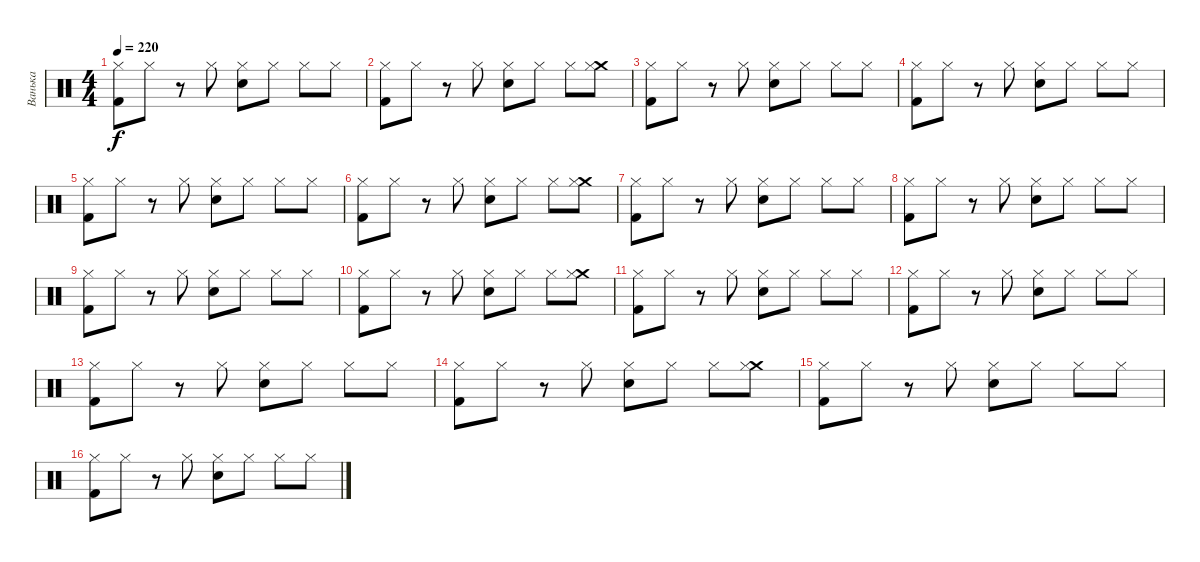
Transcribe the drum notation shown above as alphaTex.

\track ("Ванька" "Ванька") {instrument percussion}
\staff {score}
\articulation defaults
\ts (4 4)
\tempo 220
\clef neutral
\ks c
("Hi-Hat (closed)" "Kick (hit) 2").8{dy f} "Hi-Hat (closed)".8 r.8 "Hi-Hat (closed)".8 ("Hi-Hat (closed)" "Snare (hit) 2").8 "Hi-Hat (closed)".8 "Hi-Hat (closed)".8 "Hi-Hat (closed)".8 |
("Hi-Hat (closed)" "Kick (hit) 2").8 "Hi-Hat (closed)".8 r.8 "Hi-Hat (closed)".8 ("Hi-Hat (closed)" "Snare (hit) 2").8 "Hi-Hat (closed)".8 "Hi-Hat (closed)".8 ("Crash medium (hit)" "Hi-Hat (closed)").8 |
("Hi-Hat (closed)" "Kick (hit) 2").8 "Hi-Hat (closed)".8 r.8 "Hi-Hat (closed)".8 ("Hi-Hat (closed)" "Snare (hit) 2").8 "Hi-Hat (closed)".8 "Hi-Hat (closed)".8 "Hi-Hat (closed)".8 |
("Hi-Hat (closed)" "Kick (hit) 2").8 "Hi-Hat (closed)".8 r.8 "Hi-Hat (closed)".8 ("Hi-Hat (closed)" "Snare (hit) 2").8 "Hi-Hat (closed)".8 "Hi-Hat (closed)".8 "Hi-Hat (closed)".8 |
("Hi-Hat (closed)" "Kick (hit) 2").8 "Hi-Hat (closed)".8 r.8 "Hi-Hat (closed)".8 ("Hi-Hat (closed)" "Snare (hit) 2").8 "Hi-Hat (closed)".8 "Hi-Hat (closed)".8 "Hi-Hat (closed)".8 |
("Hi-Hat (closed)" "Kick (hit) 2").8 "Hi-Hat (closed)".8 r.8 "Hi-Hat (closed)".8 ("Hi-Hat (closed)" "Snare (hit) 2").8 "Hi-Hat (closed)".8 "Hi-Hat (closed)".8 ("Crash medium (hit)" "Hi-Hat (closed)").8 |
("Hi-Hat (closed)" "Kick (hit) 2").8 "Hi-Hat (closed)".8 r.8 "Hi-Hat (closed)".8 ("Hi-Hat (closed)" "Snare (hit) 2").8 "Hi-Hat (closed)".8 "Hi-Hat (closed)".8 "Hi-Hat (closed)".8 |
("Hi-Hat (closed)" "Kick (hit) 2").8 "Hi-Hat (closed)".8 r.8 "Hi-Hat (closed)".8 ("Hi-Hat (closed)" "Snare (hit) 2").8 "Hi-Hat (closed)".8 "Hi-Hat (closed)".8 "Hi-Hat (closed)".8 |
("Hi-Hat (closed)" "Kick (hit) 2").8 "Hi-Hat (closed)".8 r.8 "Hi-Hat (closed)".8 ("Hi-Hat (closed)" "Snare (hit) 2").8 "Hi-Hat (closed)".8 "Hi-Hat (closed)".8 "Hi-Hat (closed)".8 |
("Hi-Hat (closed)" "Kick (hit) 2").8 "Hi-Hat (closed)".8 r.8 "Hi-Hat (closed)".8 ("Hi-Hat (closed)" "Snare (hit) 2").8 "Hi-Hat (closed)".8 "Hi-Hat (closed)".8 ("Crash medium (hit)" "Hi-Hat (closed)").8 |
("Hi-Hat (closed)" "Kick (hit) 2").8 "Hi-Hat (closed)".8 r.8 "Hi-Hat (closed)".8 ("Hi-Hat (closed)" "Snare (hit) 2").8 "Hi-Hat (closed)".8 "Hi-Hat (closed)".8 "Hi-Hat (closed)".8 |
("Hi-Hat (closed)" "Kick (hit) 2").8 "Hi-Hat (closed)".8 r.8 "Hi-Hat (closed)".8 ("Hi-Hat (closed)" "Snare (hit) 2").8 "Hi-Hat (closed)".8 "Hi-Hat (closed)".8 "Hi-Hat (closed)".8 |
("Hi-Hat (closed)" "Kick (hit) 2").8 "Hi-Hat (closed)".8 r.8 "Hi-Hat (closed)".8 ("Hi-Hat (closed)" "Snare (hit) 2").8 "Hi-Hat (closed)".8 "Hi-Hat (closed)".8 "Hi-Hat (closed)".8 |
("Hi-Hat (closed)" "Kick (hit) 2").8 "Hi-Hat (closed)".8 r.8 "Hi-Hat (closed)".8 ("Hi-Hat (closed)" "Snare (hit) 2").8 "Hi-Hat (closed)".8 "Hi-Hat (closed)".8 ("Crash medium (hit)" "Hi-Hat (closed)").8 |
("Hi-Hat (closed)" "Kick (hit) 2").8 "Hi-Hat (closed)".8 r.8 "Hi-Hat (closed)".8 ("Hi-Hat (closed)" "Snare (hit) 2").8 "Hi-Hat (closed)".8 "Hi-Hat (closed)".8 "Hi-Hat (closed)".8 |
("Hi-Hat (closed)" "Kick (hit) 2").8 "Hi-Hat (closed)".8 r.8 "Hi-Hat (closed)".8 ("Hi-Hat (closed)" "Snare (hit) 2").8 "Hi-Hat (closed)".8 "Hi-Hat (closed)".8 "Hi-Hat (closed)".8
